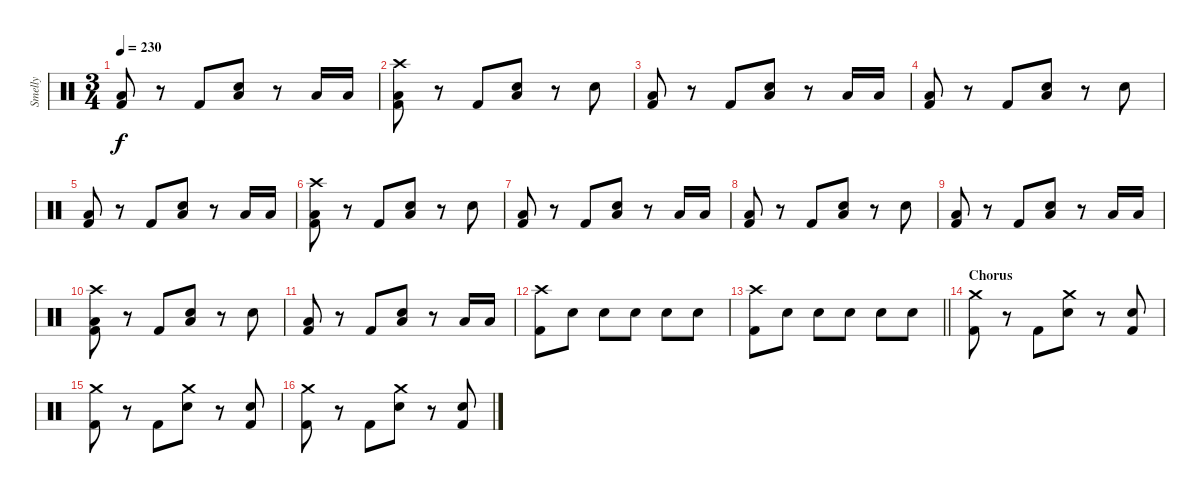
\track ("Smelly" "Smelly") {instrument percussion}
\staff {score}
\articulation defaults
\ts (3 4)
\tempo 230
\clef neutral
\ks c
("Low Floor Tom (hit)" "Kick (hit) 2").8{dy f} r.8 "Kick (hit) 2".8 ("Low Floor Tom (hit)" "Electric Snare (hit)").8 r.8 "Low Floor Tom (hit)".16 "Low Floor Tom (hit)".16 |
("Crash high (hit)" "Low Floor Tom (hit)" "Kick (hit) 2").8 r.8 "Kick (hit) 2".8 ("Low Floor Tom (hit)" "Electric Snare (hit)").8 r.8 "Electric Snare (hit)".8 |
("Low Floor Tom (hit)" "Kick (hit) 2").8 r.8 "Kick (hit) 2".8 ("Low Floor Tom (hit)" "Electric Snare (hit)").8 r.8 "Low Floor Tom (hit)".16 "Low Floor Tom (hit)".16 |
("Low Floor Tom (hit)" "Kick (hit) 2").8 r.8 "Kick (hit) 2".8 ("Low Floor Tom (hit)" "Electric Snare (hit)").8 r.8 "Electric Snare (hit)".8 |
("Low Floor Tom (hit)" "Kick (hit) 2").8 r.8 "Kick (hit) 2".8 ("Low Floor Tom (hit)" "Electric Snare (hit)").8 r.8 "Low Floor Tom (hit)".16 "Low Floor Tom (hit)".16 |
("Crash high (hit)" "Low Floor Tom (hit)" "Kick (hit) 2").8 r.8 "Kick (hit) 2".8 ("Low Floor Tom (hit)" "Electric Snare (hit)").8 r.8 "Electric Snare (hit)".8 |
("Low Floor Tom (hit)" "Kick (hit) 2").8 r.8 "Kick (hit) 2".8 ("Low Floor Tom (hit)" "Electric Snare (hit)").8 r.8 "Low Floor Tom (hit)".16 "Low Floor Tom (hit)".16 |
("Low Floor Tom (hit)" "Kick (hit) 2").8 r.8 "Kick (hit) 2".8 ("Low Floor Tom (hit)" "Electric Snare (hit)").8 r.8 "Electric Snare (hit)".8 |
("Low Floor Tom (hit)" "Kick (hit) 2").8 r.8 "Kick (hit) 2".8 ("Low Floor Tom (hit)" "Electric Snare (hit)").8 r.8 "Low Floor Tom (hit)".16 "Low Floor Tom (hit)".16 |
("Crash high (hit)" "Low Floor Tom (hit)" "Kick (hit) 2").8 r.8 "Kick (hit) 2".8 ("Low Floor Tom (hit)" "Electric Snare (hit)").8 r.8 "Electric Snare (hit)".8 |
("Low Floor Tom (hit)" "Kick (hit) 2").8 r.8 "Kick (hit) 2".8 ("Low Floor Tom (hit)" "Electric Snare (hit)").8 r.8 "Low Floor Tom (hit)".16 "Low Floor Tom (hit)".16 |
("Crash high (hit)" "Kick (hit) 2").8 "Electric Snare (hit)".8 "Electric Snare (hit)".8 "Electric Snare (hit)".8 "Electric Snare (hit)".8 "Electric Snare (hit)".8 |
\barLineRight lightlight
("Crash high (hit)" "Kick (hit) 2").8 "Electric Snare (hit)".8 "Electric Snare (hit)".8 "Electric Snare (hit)".8 "Electric Snare (hit)".8 "Electric Snare (hit)".8 |
\section ("" "Chorus")
("Crash medium (hit)" "Kick (hit) 2").8 r.8 "Kick (hit) 2".8 ("Crash medium (hit)" "Electric Snare (hit)").8 r.8 ("Electric Snare (hit)" "Kick (hit) 2").8 |
("Crash medium (hit)" "Kick (hit) 2").8 r.8 "Kick (hit) 2".8 ("Crash medium (hit)" "Electric Snare (hit)").8 r.8 ("Electric Snare (hit)" "Kick (hit) 2").8 |
("Crash medium (hit)" "Kick (hit) 2").8 r.8 "Kick (hit) 2".8 ("Crash medium (hit)" "Electric Snare (hit)").8 r.8 ("Electric Snare (hit)" "Kick (hit) 2").8
